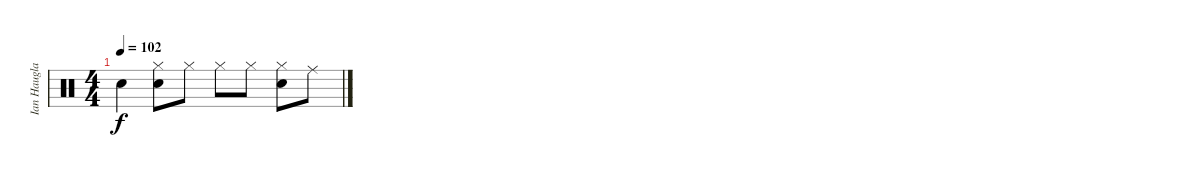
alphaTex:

\track ("Ian Haugland Drums 2" "Ian Haugla") {instrument percussion}
\staff {score}
\articulation defaults
\ts (4 4)
\tempo 102
\clef neutral
\ks c "Snare (hit)"{t}.4{dy f}
("Hi-Hat (closed)" "Snare (hit) 2").8 "Hi-Hat (closed)".8 "Hi-Hat (closed)".8 "Hi-Hat (closed)".8 ("Hi-Hat (closed)" "Snare (hit) 2").8 "Ride (middle)".8
